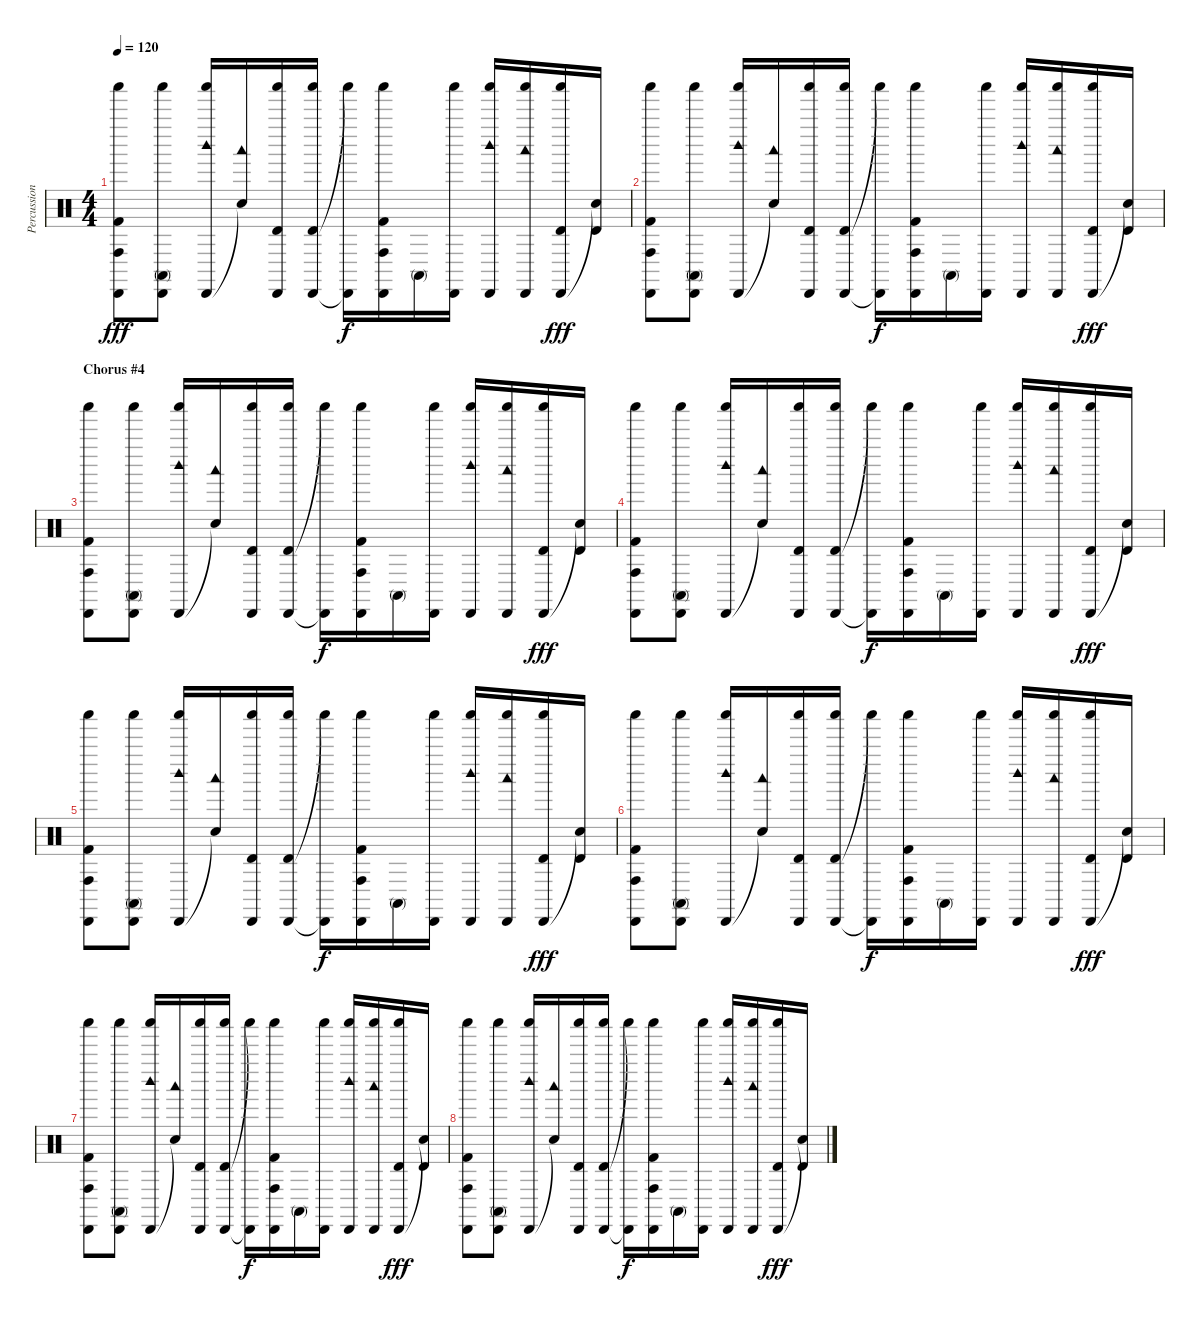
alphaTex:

\track ("Percussion" "Percussion") {instrument percussion}
\staff {score}
\articulation defaults
\ts (4 4)
\tempo 120
\clef neutral
\ks c
("Cabasa (hit)" "Conga high (hit)" "Kick (hit) 2" "Shaker (hit)").8{dy fff} ("Cabasa (hit)" "Conga high (mute)" "Shaker (hit)").8 ("Cabasa (hit)" "Woodblock high (hit)" "Shaker (hit)").16 ("Snare (hit)"{t} "Woodblock low (hit)").16 ("Cabasa (hit)" "Timbale high (hit)" "Shaker (hit)").16 ("Cabasa (hit)" "Timbale high (hit)" "Shaker (hit)").16 ("Cabasa (hit)"{t} "Shaker (hit)"{t}).16{dy f} ("Cabasa (hit)" "Conga high (hit)" "Kick (hit) 2" "Shaker (hit)").16 "Conga high (mute)".16 ("Cabasa (hit)" "Shaker (hit)").16 ("Cabasa (hit)" "Woodblock high (hit)" "Shaker (hit)").16 ("Cabasa (hit)" "Woodblock low (hit)" "Shaker (hit)").16 ("Cabasa (hit)" "Timbale high (hit)" "Shaker (hit)").16{dy fff} ("Snare (hit)"{t} "Timbale high (hit)").16 |
("Cabasa (hit)" "Conga high (hit)" "Kick (hit) 2" "Shaker (hit)").8 ("Cabasa (hit)" "Conga high (mute)" "Shaker (hit)").8 ("Cabasa (hit)" "Woodblock high (hit)" "Shaker (hit)").16 ("Snare (hit)"{t} "Woodblock low (hit)").16 ("Cabasa (hit)" "Timbale high (hit)" "Shaker (hit)").16 ("Cabasa (hit)" "Timbale high (hit)" "Shaker (hit)").16 ("Cabasa (hit)"{t} "Shaker (hit)"{t}).16{dy f} ("Cabasa (hit)" "Conga high (hit)" "Kick (hit) 2" "Shaker (hit)").16 "Conga high (mute)".16 ("Cabasa (hit)" "Shaker (hit)").16 ("Cabasa (hit)" "Woodblock high (hit)" "Shaker (hit)").16 ("Cabasa (hit)" "Woodblock low (hit)" "Shaker (hit)").16 ("Cabasa (hit)" "Timbale high (hit)" "Shaker (hit)").16{dy fff} ("Snare (hit)"{t} "Timbale high (hit)").16 |
\section ("" "Chorus #4")
("Cabasa (hit)" "Conga high (hit)" "Kick (hit) 2" "Shaker (hit)").8 ("Cabasa (hit)" "Conga high (mute)" "Shaker (hit)").8 ("Cabasa (hit)" "Woodblock high (hit)" "Shaker (hit)").16 ("Snare (hit)"{t} "Woodblock low (hit)").16 ("Cabasa (hit)" "Timbale high (hit)" "Shaker (hit)").16 ("Cabasa (hit)" "Timbale high (hit)" "Shaker (hit)").16 ("Cabasa (hit)"{t} "Shaker (hit)"{t}).16{dy f} ("Cabasa (hit)" "Conga high (hit)" "Kick (hit) 2" "Shaker (hit)").16 "Conga high (mute)".16 ("Cabasa (hit)" "Shaker (hit)").16 ("Cabasa (hit)" "Woodblock high (hit)" "Shaker (hit)").16 ("Cabasa (hit)" "Woodblock low (hit)" "Shaker (hit)").16 ("Cabasa (hit)" "Timbale high (hit)" "Shaker (hit)").16{dy fff} ("Snare (hit)"{t} "Timbale high (hit)").16 |
("Cabasa (hit)" "Conga high (hit)" "Kick (hit) 2" "Shaker (hit)").8 ("Cabasa (hit)" "Conga high (mute)" "Shaker (hit)").8 ("Cabasa (hit)" "Woodblock high (hit)" "Shaker (hit)").16 ("Snare (hit)"{t} "Woodblock low (hit)").16 ("Cabasa (hit)" "Timbale high (hit)" "Shaker (hit)").16 ("Cabasa (hit)" "Timbale high (hit)" "Shaker (hit)").16 ("Cabasa (hit)"{t} "Shaker (hit)"{t}).16{dy f} ("Cabasa (hit)" "Conga high (hit)" "Kick (hit) 2" "Shaker (hit)").16 "Conga high (mute)".16 ("Cabasa (hit)" "Shaker (hit)").16 ("Cabasa (hit)" "Woodblock high (hit)" "Shaker (hit)").16 ("Cabasa (hit)" "Woodblock low (hit)" "Shaker (hit)").16 ("Cabasa (hit)" "Timbale high (hit)" "Shaker (hit)").16{dy fff} ("Snare (hit)"{t} "Timbale high (hit)").16 |
("Cabasa (hit)" "Conga high (hit)" "Kick (hit) 2" "Shaker (hit)").8 ("Cabasa (hit)" "Conga high (mute)" "Shaker (hit)").8 ("Cabasa (hit)" "Woodblock high (hit)" "Shaker (hit)").16 ("Snare (hit)"{t} "Woodblock low (hit)").16 ("Cabasa (hit)" "Timbale high (hit)" "Shaker (hit)").16 ("Cabasa (hit)" "Timbale high (hit)" "Shaker (hit)").16 ("Cabasa (hit)"{t} "Shaker (hit)"{t}).16{dy f} ("Cabasa (hit)" "Conga high (hit)" "Kick (hit) 2" "Shaker (hit)").16 "Conga high (mute)".16 ("Cabasa (hit)" "Shaker (hit)").16 ("Cabasa (hit)" "Woodblock high (hit)" "Shaker (hit)").16 ("Cabasa (hit)" "Woodblock low (hit)" "Shaker (hit)").16 ("Cabasa (hit)" "Timbale high (hit)" "Shaker (hit)").16{dy fff} ("Snare (hit)"{t} "Timbale high (hit)").16 |
("Cabasa (hit)" "Conga high (hit)" "Kick (hit) 2" "Shaker (hit)").8 ("Cabasa (hit)" "Conga high (mute)" "Shaker (hit)").8 ("Cabasa (hit)" "Woodblock high (hit)" "Shaker (hit)").16 ("Snare (hit)"{t} "Woodblock low (hit)").16 ("Cabasa (hit)" "Timbale high (hit)" "Shaker (hit)").16 ("Cabasa (hit)" "Timbale high (hit)" "Shaker (hit)").16 ("Cabasa (hit)"{t} "Shaker (hit)"{t}).16{dy f} ("Cabasa (hit)" "Conga high (hit)" "Kick (hit) 2" "Shaker (hit)").16 "Conga high (mute)".16 ("Cabasa (hit)" "Shaker (hit)").16 ("Cabasa (hit)" "Woodblock high (hit)" "Shaker (hit)").16 ("Cabasa (hit)" "Woodblock low (hit)" "Shaker (hit)").16 ("Cabasa (hit)" "Timbale high (hit)" "Shaker (hit)").16{dy fff} ("Snare (hit)"{t} "Timbale high (hit)").16 |
("Cabasa (hit)" "Conga high (hit)" "Kick (hit) 2" "Shaker (hit)").8 ("Cabasa (hit)" "Conga high (mute)" "Shaker (hit)").8 ("Cabasa (hit)" "Woodblock high (hit)" "Shaker (hit)").16 ("Snare (hit)"{t} "Woodblock low (hit)").16 ("Cabasa (hit)" "Timbale high (hit)" "Shaker (hit)").16 ("Cabasa (hit)" "Timbale high (hit)" "Shaker (hit)").16 ("Cabasa (hit)"{t} "Shaker (hit)"{t}).16{dy f} ("Cabasa (hit)" "Conga high (hit)" "Kick (hit) 2" "Shaker (hit)").16 "Conga high (mute)".16 ("Cabasa (hit)" "Shaker (hit)").16 ("Cabasa (hit)" "Woodblock high (hit)" "Shaker (hit)").16 ("Cabasa (hit)" "Woodblock low (hit)" "Shaker (hit)").16 ("Cabasa (hit)" "Timbale high (hit)" "Shaker (hit)").16{dy fff} ("Snare (hit)"{t} "Timbale high (hit)").16 |
("Cabasa (hit)" "Conga high (hit)" "Kick (hit) 2" "Shaker (hit)").8 ("Cabasa (hit)" "Conga high (mute)" "Shaker (hit)").8 ("Cabasa (hit)" "Woodblock high (hit)" "Shaker (hit)").16 ("Snare (hit)"{t} "Woodblock low (hit)").16 ("Cabasa (hit)" "Timbale high (hit)" "Shaker (hit)").16 ("Cabasa (hit)" "Timbale high (hit)" "Shaker (hit)").16 ("Cabasa (hit)"{t} "Shaker (hit)"{t}).16{dy f} ("Cabasa (hit)" "Conga high (hit)" "Kick (hit) 2" "Shaker (hit)").16 "Conga high (mute)".16 ("Cabasa (hit)" "Shaker (hit)").16 ("Cabasa (hit)" "Woodblock high (hit)" "Shaker (hit)").16 ("Cabasa (hit)" "Woodblock low (hit)" "Shaker (hit)").16 ("Cabasa (hit)" "Timbale high (hit)" "Shaker (hit)").16{dy fff} ("Snare (hit)"{t} "Timbale high (hit)").16
